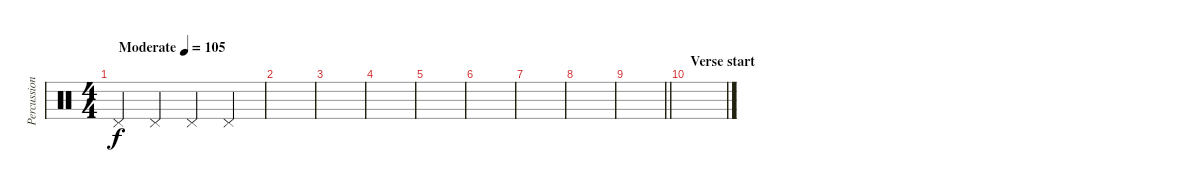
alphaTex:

\track ("Percussion" "Percussion") {instrument percussion}
\staff {score}
\articulation defaults
\ts (4 4)
\tempo (105 "Moderate")
\clef neutral
\ks c "Pedal Hi-Hat (hit)".4{dy f} "Pedal Hi-Hat (hit)".4 "Pedal Hi-Hat (hit)".4 "Pedal Hi-Hat (hit)".4
|
|
|
|
|
|
|
|
\barLineRight lightlight
|
\section ("" "Verse start")
